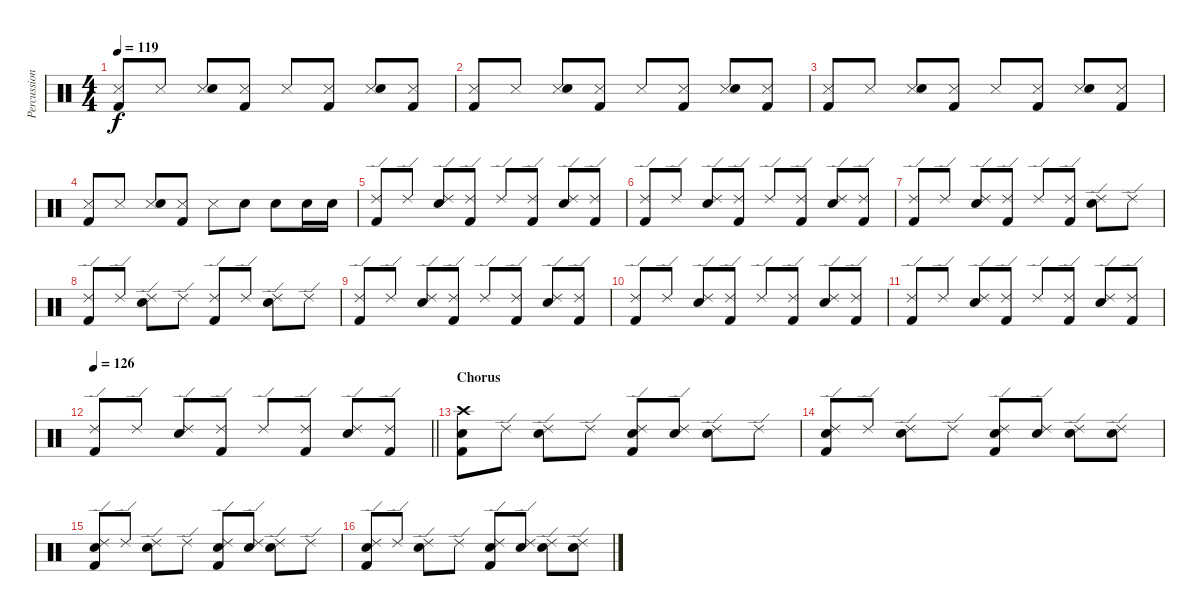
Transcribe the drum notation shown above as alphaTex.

\track ("Percussion" "Percussion") {instrument percussion}
\staff {score}
\articulation defaults
\ts (4 4)
\tempo 119
\clef neutral
\ks c
("Snare (side stick) 3" "Kick (hit) 2").8{dy f} "Snare (side stick) 3".8 ("Snare (side stick) 3" "Snare (hit) 2").8 ("Snare (side stick) 3" "Kick (hit) 2").8 "Snare (side stick) 3".8 ("Snare (side stick) 3" "Kick (hit) 2").8 ("Snare (side stick) 3" "Snare (hit) 2").8 ("Snare (side stick) 3" "Kick (hit) 2").8 |
("Snare (side stick) 3" "Kick (hit) 2").8 "Snare (side stick) 3".8 ("Snare (side stick) 3" "Snare (hit) 2").8 ("Snare (side stick) 3" "Kick (hit) 2").8 "Snare (side stick) 3".8 ("Snare (side stick) 3" "Kick (hit) 2").8 ("Snare (side stick) 3" "Snare (hit) 2").8 ("Snare (side stick) 3" "Kick (hit) 2").8 |
("Snare (side stick) 3" "Kick (hit) 2").8 "Snare (side stick) 3".8 ("Snare (side stick) 3" "Snare (hit) 2").8 ("Snare (side stick) 3" "Kick (hit) 2").8 "Snare (side stick) 3".8 ("Snare (side stick) 3" "Kick (hit) 2").8 ("Snare (side stick) 3" "Snare (hit) 2").8 ("Snare (side stick) 3" "Kick (hit) 2").8 |
("Snare (side stick) 3" "Kick (hit) 2").8 "Snare (side stick) 3".8 ("Snare (side stick) 3" "Snare (hit) 2").8 ("Snare (side stick) 3" "Kick (hit) 2").8 "Snare (side stick) 3".8 "Snare (hit) 2".8 "Snare (hit) 2".8 "Snare (hit) 2".16 "Snare (hit) 2".16 |
("Ride (edge) 2" "Kick (hit) 2").8 "Ride (edge) 2".8 ("Ride (edge) 2" "Snare (hit) 2").8 ("Ride (edge) 2" "Kick (hit) 2").8 "Ride (edge) 2".8 ("Ride (edge) 2" "Kick (hit) 2").8 ("Ride (edge) 2" "Snare (hit) 2").8 ("Ride (edge) 2" "Kick (hit) 2").8 |
("Ride (edge) 2" "Kick (hit) 2").8 "Ride (edge) 2".8 ("Ride (edge) 2" "Snare (hit) 2").8 ("Ride (edge) 2" "Kick (hit) 2").8 "Ride (edge) 2".8 ("Ride (edge) 2" "Kick (hit) 2").8 ("Ride (edge) 2" "Snare (hit) 2").8 ("Ride (edge) 2" "Kick (hit) 2").8 |
("Ride (edge) 2" "Kick (hit) 2").8 "Ride (edge) 2".8 ("Ride (edge) 2" "Snare (hit) 2").8 ("Ride (edge) 2" "Kick (hit) 2").8 "Ride (edge) 2".8 ("Ride (edge) 2" "Kick (hit) 2").8 ("Ride (edge) 2" "Snare (hit) 2").8 "Ride (edge) 2".8 |
("Ride (edge) 2" "Kick (hit) 2").8 "Ride (edge) 2".8 ("Ride (edge) 2" "Snare (hit) 2").8 "Ride (edge) 2".8 ("Ride (edge) 2" "Kick (hit) 2").8 "Ride (edge) 2".8 ("Ride (edge) 2" "Snare (hit) 2").8 "Ride (edge) 2".8 |
("Ride (edge) 2" "Kick (hit) 2").8 "Ride (edge) 2".8 ("Ride (edge) 2" "Snare (hit) 2").8 ("Ride (edge) 2" "Kick (hit) 2").8 "Ride (edge) 2".8 ("Ride (edge) 2" "Kick (hit) 2").8 ("Ride (edge) 2" "Snare (hit) 2").8 ("Ride (edge) 2" "Kick (hit) 2").8 |
("Ride (edge) 2" "Kick (hit) 2").8 "Ride (edge) 2".8 ("Ride (edge) 2" "Snare (hit) 2").8 ("Ride (edge) 2" "Kick (hit) 2").8 "Ride (edge) 2".8 ("Ride (edge) 2" "Kick (hit) 2").8 ("Ride (edge) 2" "Snare (hit) 2").8 ("Ride (edge) 2" "Kick (hit) 2").8 |
("Ride (edge) 2" "Kick (hit) 2").8 "Ride (edge) 2".8 ("Ride (edge) 2" "Snare (hit) 2").8 ("Ride (edge) 2" "Kick (hit) 2").8 "Ride (edge) 2".8 ("Ride (edge) 2" "Kick (hit) 2").8 ("Ride (edge) 2" "Snare (hit) 2").8 ("Ride (edge) 2" "Kick (hit) 2").8 |
\tempo 126
\barLineRight lightlight
("Ride (edge) 2" "Kick (hit) 2").8 "Ride (edge) 2".8 ("Ride (edge) 2" "Snare (hit) 2").8 ("Ride (edge) 2" "Kick (hit) 2").8 "Ride (edge) 2".8 ("Ride (edge) 2" "Kick (hit) 2").8 ("Ride (edge) 2" "Snare (hit) 2").8 ("Ride (edge) 2" "Kick (hit) 2").8 |
\section ("" "Chorus")
("Crash high (hit)" "Snare (hit) 2" "Kick (hit) 2").8 "Ride (edge) 2".8 ("Ride (edge) 2" "Snare (hit) 2").8 "Ride (edge) 2".8 ("Ride (edge) 2" "Snare (hit) 2" "Kick (hit) 2").8 ("Ride (edge) 2" "Snare (hit) 2").8 ("Ride (edge) 2" "Snare (hit) 2").8 "Ride (edge) 2".8 |
("Ride (edge) 2" "Snare (hit) 2" "Kick (hit) 2").8 "Ride (edge) 2".8 ("Ride (edge) 2" "Snare (hit) 2").8 "Ride (edge) 2".8 ("Ride (edge) 2" "Snare (hit) 2" "Kick (hit) 2").8 ("Ride (edge) 2" "Snare (hit) 2").8 ("Ride (edge) 2" "Snare (hit) 2").8 ("Ride (edge) 2" "Snare (hit) 2").8 |
("Ride (edge) 2" "Snare (hit) 2" "Kick (hit) 2").8 "Ride (edge) 2".8 ("Ride (edge) 2" "Snare (hit) 2").8 "Ride (edge) 2".8 ("Ride (edge) 2" "Snare (hit) 2" "Kick (hit) 2").8 ("Ride (edge) 2" "Snare (hit) 2").8 ("Ride (edge) 2" "Snare (hit) 2").8 "Ride (edge) 2".8 |
("Ride (edge) 2" "Snare (hit) 2" "Kick (hit) 2").8 "Ride (edge) 2".8 ("Ride (edge) 2" "Snare (hit) 2").8 "Ride (edge) 2".8 ("Ride (edge) 2" "Snare (hit) 2" "Kick (hit) 2").8 ("Ride (edge) 2" "Snare (hit) 2").8 ("Ride (edge) 2" "Snare (hit) 2").8 ("Ride (edge) 2" "Snare (hit) 2").8
